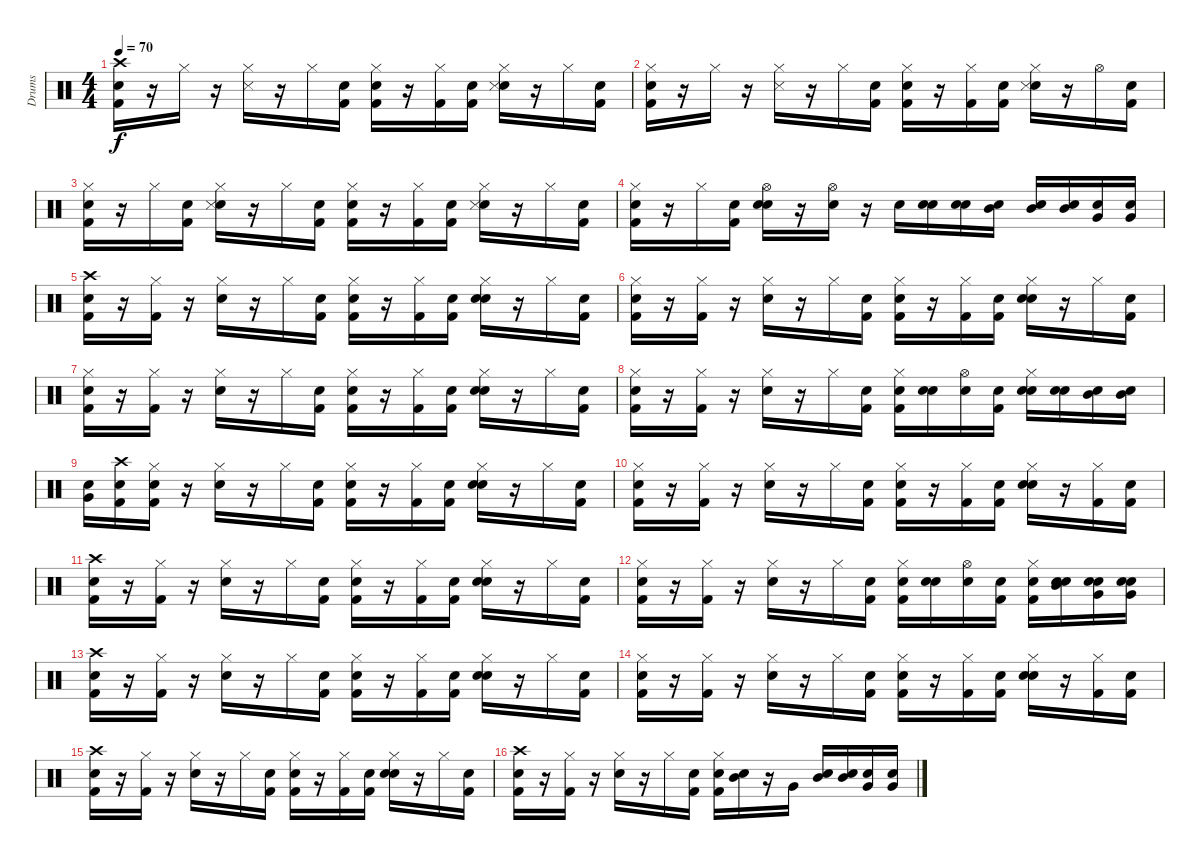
\track ("Drums" "Drums") {instrument percussion}
\staff {score}
\articulation defaults
\ts (4 4)
\tempo 70
\clef neutral
\ks c
("Snare (hit)" "Kick (hit) 2" "Crash high (hit)").16{dy f} r.16 "Hi-Hat (closed)".16 r.16 ("Snare (side stick) 3" "Hi-Hat (closed)").16 r.16 "Hi-Hat (closed)".16 ("Snare (hit)" "Kick (hit) 2").16 ("Snare (hit)" "Kick (hit) 2" "Hi-Hat (closed)").16 r.16 ("Kick (hit) 2" "Hi-Hat (closed)").16 ("Snare (hit)" "Kick (hit) 2").16 ("Snare (hit)" "Snare (side stick) 3" "Hi-Hat (closed)").16 r.16 "Hi-Hat (closed)".16 ("Snare (hit)" "Kick (hit) 2").16 |
("Snare (hit)" "Kick (hit) 2" "Hi-Hat (closed)").16 r.16 "Hi-Hat (closed)".16 r.16 ("Snare (side stick) 3" "Hi-Hat (closed)").16 r.16 "Hi-Hat (closed)".16 ("Snare (hit)" "Kick (hit) 2").16 ("Snare (hit)" "Kick (hit) 2" "Hi-Hat (closed)").16 r.16 ("Kick (hit) 2" "Hi-Hat (closed)").16 ("Snare (hit)" "Kick (hit) 2").16 ("Snare (hit)" "Snare (side stick) 3" "Hi-Hat (closed)").16 r.16 "Hi-Hat (open)".16 ("Snare (hit)" "Kick (hit) 2").16 |
("Snare (hit)" "Kick (hit) 2" "Hi-Hat (closed)").16 r.16 "Hi-Hat (closed)".16 ("Snare (hit)" "Kick (hit) 2").16 ("Snare (hit)" "Snare (side stick) 3" "Hi-Hat (closed)").16 r.16 "Hi-Hat (closed)".16 ("Snare (hit)" "Kick (hit) 2").16 ("Snare (hit)" "Kick (hit) 2" "Hi-Hat (closed)").16 r.16 ("Kick (hit) 2" "Hi-Hat (closed)").16 ("Snare (hit)" "Kick (hit) 2").16 ("Snare (hit)" "Snare (side stick) 3" "Hi-Hat (closed)").16 r.16 "Hi-Hat (closed)".16 ("Snare (hit)" "Kick (hit) 2").16 |
("Snare (hit)" "Kick (hit) 2" "Hi-Hat (closed)").16 r.16 "Hi-Hat (closed)".16 ("Snare (hit)" "Kick (hit) 2").16 ("Snare (hit)" "Snare (hit) 2" "Hi-Hat (open)").16 r.16 ("Snare (hit) 2" "Hi-Hat (open)").16 r.16 "Snare (hit) 2".16 ("Snare (hit)" "Snare (hit) 2").16 ("Snare (hit)" "Snare (hit) 2").16 ("Snare (hit)" "Mid Tom (hit)").16 ("Snare (hit)" "Mid Tom (hit)").16 ("Snare (hit)" "Mid Tom (hit)").16 ("Snare (hit)" "Very Low Tom (hit)").16 ("Snare (hit)" "Very Low Tom (hit)").16 |
("Snare (hit)" "Kick (hit) 2" "Crash high (hit)").16 r.16 ("Kick (hit) 2" "Hi-Hat (closed)").16 r.16 ("Snare (hit) 2" "Hi-Hat (closed)").16 r.16 "Hi-Hat (closed)".16 ("Snare (hit)" "Kick (hit) 2").16 ("Snare (hit)" "Kick (hit) 2" "Hi-Hat (closed)").16 r.16 ("Kick (hit) 2" "Hi-Hat (closed)").16 ("Snare (hit)" "Kick (hit) 2").16 ("Snare (hit)" "Snare (hit) 2" "Hi-Hat (closed)").16 r.16 "Hi-Hat (closed)".16 ("Snare (hit)" "Kick (hit) 2").16 |
("Snare (hit)" "Kick (hit) 2" "Hi-Hat (closed)").16 r.16 ("Kick (hit) 2" "Hi-Hat (closed)").16 r.16 ("Snare (hit) 2" "Hi-Hat (closed)").16 r.16 "Hi-Hat (closed)".16 ("Snare (hit)" "Kick (hit) 2").16 ("Snare (hit)" "Kick (hit) 2" "Hi-Hat (closed)").16 r.16 ("Kick (hit) 2" "Hi-Hat (closed)").16 ("Snare (hit)" "Kick (hit) 2").16 ("Snare (hit)" "Snare (hit) 2" "Hi-Hat (closed)").16 r.16 "Hi-Hat (closed)".16 ("Snare (hit)" "Kick (hit) 2").16 |
("Snare (hit)" "Kick (hit) 2" "Hi-Hat (closed)").16 r.16 ("Kick (hit) 2" "Hi-Hat (closed)").16 r.16 ("Snare (hit) 2" "Hi-Hat (closed)").16 r.16 "Hi-Hat (closed)".16 ("Snare (hit)" "Kick (hit) 2").16 ("Snare (hit)" "Kick (hit) 2" "Hi-Hat (closed)").16 r.16 ("Kick (hit) 2" "Hi-Hat (closed)").16 ("Snare (hit)" "Kick (hit) 2").16 ("Snare (hit)" "Snare (hit) 2" "Hi-Hat (closed)").16 r.16 "Hi-Hat (closed)".16 ("Snare (hit)" "Kick (hit) 2").16 |
("Snare (hit)" "Kick (hit) 2" "Hi-Hat (closed)").16 r.16 ("Kick (hit) 2" "Hi-Hat (closed)").16 r.16 ("Snare (hit) 2" "Hi-Hat (closed)").16 r.16 "Hi-Hat (closed)".16 ("Snare (hit)" "Kick (hit) 2").16 ("Snare (hit)" "Kick (hit) 2" "Hi-Hat (closed)").16 ("Snare (hit)" "Snare (hit) 2").16 ("Snare (hit)" "Hi-Hat (open)").16 ("Snare (hit)" "Kick (hit) 2").16 ("Snare (hit)" "Snare (hit) 2" "Hi-Hat (closed)").16 ("Snare (hit)" "Snare (hit) 2").16 ("Snare (hit)" "Mid Tom (hit)").16 ("Snare (hit)" "Mid Tom (hit)").16 |
("Snare (hit)" "Very Low Tom (hit)").16 ("Snare (hit)" "Kick (hit) 2" "Crash high (hit)").16 ("Snare (hit)" "Kick (hit) 2" "Hi-Hat (closed)").16 r.16 ("Snare (hit) 2" "Hi-Hat (closed)").16 r.16 "Hi-Hat (closed)".16 ("Snare (hit)" "Kick (hit) 2").16 ("Snare (hit)" "Kick (hit) 2" "Hi-Hat (closed)").16 r.16 ("Kick (hit) 2" "Hi-Hat (closed)").16 ("Snare (hit)" "Kick (hit) 2").16 ("Snare (hit)" "Snare (hit) 2" "Hi-Hat (closed)").16 r.16 "Hi-Hat (closed)".16 ("Snare (hit)" "Kick (hit) 2").16 |
("Snare (hit)" "Kick (hit) 2" "Hi-Hat (closed)").16 r.16 ("Kick (hit) 2" "Hi-Hat (closed)").16 r.16 ("Snare (hit) 2" "Hi-Hat (closed)").16 r.16 "Hi-Hat (closed)".16 ("Snare (hit)" "Kick (hit) 2").16 ("Snare (hit)" "Kick (hit) 2" "Hi-Hat (closed)").16 r.16 ("Kick (hit) 2" "Hi-Hat (closed)").16 ("Snare (hit)" "Kick (hit) 2").16 ("Snare (hit)" "Snare (hit) 2" "Hi-Hat (closed)").16 r.16 ("Kick (hit) 2" "Hi-Hat (closed)").16 ("Snare (hit)" "Kick (hit) 2").16 |
("Snare (hit)" "Kick (hit) 2" "Crash high (hit)").16 r.16 ("Kick (hit) 2" "Hi-Hat (closed)").16 r.16 ("Snare (hit) 2" "Hi-Hat (closed)").16 r.16 "Hi-Hat (closed)".16 ("Snare (hit)" "Kick (hit) 2").16 ("Snare (hit)" "Kick (hit) 2" "Hi-Hat (closed)").16 r.16 ("Kick (hit) 2" "Hi-Hat (closed)").16 ("Snare (hit)" "Kick (hit) 2").16 ("Snare (hit)" "Snare (hit) 2" "Hi-Hat (closed)").16 r.16 "Hi-Hat (closed)".16 ("Snare (hit)" "Kick (hit) 2").16 |
("Snare (hit)" "Kick (hit) 2" "Hi-Hat (closed)").16 r.16 ("Kick (hit) 2" "Hi-Hat (closed)").16 r.16 ("Snare (hit) 2" "Hi-Hat (closed)").16 r.16 "Hi-Hat (closed)".16 ("Snare (hit)" "Kick (hit) 2").16 ("Snare (hit)" "Kick (hit) 2" "Hi-Hat (closed)").16 ("Snare (hit)" "Snare (hit) 2").16 ("Snare (hit)" "Hi-Hat (open)").16 ("Snare (hit)" "Kick (hit) 2").16 ("Snare (hit)" "Kick (hit) 2" "Hi-Hat (closed)").16 ("Snare (hit)" "Snare (hit) 2" "Mid Tom (hit)").16 ("Snare (hit)" "Snare (hit) 2" "Very Low Tom (hit)").16 ("Snare (hit)" "Snare (hit) 2" "Very Low Tom (hit)").16 |
("Snare (hit)" "Kick (hit) 2" "Crash high (hit)").16 r.16 ("Kick (hit) 2" "Hi-Hat (closed)").16 r.16 ("Snare (hit) 2" "Hi-Hat (closed)").16 r.16 "Hi-Hat (closed)".16 ("Snare (hit)" "Kick (hit) 2").16 ("Snare (hit)" "Kick (hit) 2" "Hi-Hat (closed)").16 r.16 ("Kick (hit) 2" "Hi-Hat (closed)").16 ("Snare (hit)" "Kick (hit) 2").16 ("Snare (hit)" "Snare (hit) 2" "Hi-Hat (closed)").16 r.16 "Hi-Hat (closed)".16 ("Snare (hit)" "Kick (hit) 2").16 |
("Snare (hit)" "Kick (hit) 2" "Hi-Hat (closed)").16 r.16 ("Kick (hit) 2" "Hi-Hat (closed)").16 r.16 ("Snare (hit) 2" "Hi-Hat (closed)").16 r.16 "Hi-Hat (closed)".16 ("Snare (hit)" "Kick (hit) 2").16 ("Snare (hit)" "Kick (hit) 2" "Hi-Hat (closed)").16 r.16 ("Kick (hit) 2" "Hi-Hat (closed)").16 ("Snare (hit)" "Kick (hit) 2").16 ("Snare (hit)" "Snare (hit) 2" "Hi-Hat (closed)").16 r.16 ("Kick (hit) 2" "Hi-Hat (closed)").16 ("Snare (hit)" "Kick (hit) 2").16 |
("Snare (hit)" "Kick (hit) 2" "Crash high (hit)").16 r.16 ("Kick (hit) 2" "Hi-Hat (closed)").16 r.16 ("Snare (hit) 2" "Hi-Hat (closed)").16 r.16 "Hi-Hat (closed)".16 ("Snare (hit)" "Kick (hit) 2").16 ("Snare (hit)" "Kick (hit) 2" "Hi-Hat (closed)").16 r.16 ("Kick (hit) 2" "Hi-Hat (closed)").16 ("Snare (hit)" "Kick (hit) 2").16 ("Snare (hit)" "Snare (hit) 2" "Hi-Hat (closed)").16 r.16 "Hi-Hat (closed)".16 ("Snare (hit)" "Kick (hit) 2").16 |
("Snare (hit)" "Kick (hit) 2" "Crash high (hit)").16 r.16 ("Kick (hit) 2" "Hi-Hat (closed)").16 r.16 ("Snare (hit) 2" "Hi-Hat (closed)").16 r.16 "Hi-Hat (closed)".16 ("Snare (hit)" "Kick (hit) 2").16 ("Snare (hit)" "Kick (hit) 2" "Hi-Hat (closed)").16 ("Snare (hit)" "Mid Tom (hit)").16 r.16 "Very Low Tom (hit)".16 ("Snare (hit)" "Mid Tom (hit)").16 ("Snare (hit)" "Mid Tom (hit)").16 ("Snare (hit)" "Very Low Tom (hit)").16 ("Snare (hit)" "Very Low Tom (hit)").16
